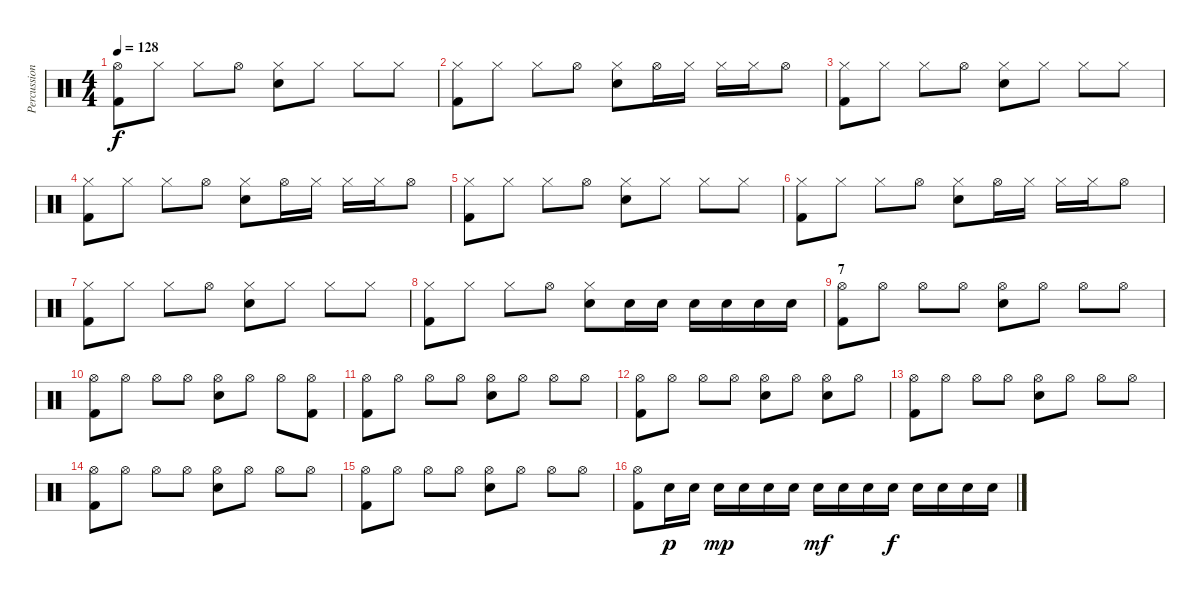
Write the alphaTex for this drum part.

\track ("Percussion" "Percussion") {instrument percussion}
\staff {score}
\articulation defaults
\ts (4 4)
\tempo 128
\clef neutral
\ks c
("Hi-Hat (open)" "Kick (hit) 2").8{dy f} "Hi-Hat (closed)".8 "Hi-Hat (closed)".8 "Hi-Hat (open)".8 ("Hi-Hat (closed)" "Electric Snare (hit)").8 "Hi-Hat (closed)".8 "Hi-Hat (closed)".8 "Hi-Hat (closed)".8 |
("Hi-Hat (closed)" "Kick (hit) 2").8 "Hi-Hat (closed)".8 "Hi-Hat (closed)".8 "Hi-Hat (open)".8 ("Hi-Hat (closed)" "Electric Snare (hit)").8 "Hi-Hat (open)".16 "Hi-Hat (closed)".16 "Hi-Hat (closed)".16 "Hi-Hat (closed)".16 "Hi-Hat (open)".8 |
("Hi-Hat (closed)" "Kick (hit) 2").8 "Hi-Hat (closed)".8 "Hi-Hat (closed)".8 "Hi-Hat (open)".8 ("Hi-Hat (closed)" "Electric Snare (hit)").8 "Hi-Hat (closed)".8 "Hi-Hat (closed)".8 "Hi-Hat (closed)".8 |
("Hi-Hat (closed)" "Kick (hit) 2").8 "Hi-Hat (closed)".8 "Hi-Hat (closed)".8 "Hi-Hat (open)".8 ("Hi-Hat (closed)" "Electric Snare (hit)").8 "Hi-Hat (open)".16 "Hi-Hat (closed)".16 "Hi-Hat (closed)".16 "Hi-Hat (closed)".16 "Hi-Hat (open)".8 |
("Hi-Hat (closed)" "Kick (hit) 2").8 "Hi-Hat (closed)".8 "Hi-Hat (closed)".8 "Hi-Hat (open)".8 ("Hi-Hat (closed)" "Electric Snare (hit)").8 "Hi-Hat (closed)".8 "Hi-Hat (closed)".8 "Hi-Hat (closed)".8 |
("Hi-Hat (closed)" "Kick (hit) 2").8 "Hi-Hat (closed)".8 "Hi-Hat (closed)".8 "Hi-Hat (open)".8 ("Hi-Hat (closed)" "Electric Snare (hit)").8 "Hi-Hat (open)".16 "Hi-Hat (closed)".16 "Hi-Hat (closed)".16 "Hi-Hat (closed)".16 "Hi-Hat (open)".8 |
("Hi-Hat (closed)" "Kick (hit) 2").8 "Hi-Hat (closed)".8 "Hi-Hat (closed)".8 "Hi-Hat (open)".8 ("Hi-Hat (closed)" "Electric Snare (hit)").8 "Hi-Hat (closed)".8 "Hi-Hat (closed)".8 "Hi-Hat (closed)".8 |
("Hi-Hat (closed)" "Kick (hit) 2").8 "Hi-Hat (closed)".8 "Hi-Hat (closed)".8 "Hi-Hat (open)".8 ("Hi-Hat (closed)" "Electric Snare (hit)").8 "Electric Snare (hit)".16 "Electric Snare (hit)".16 "Electric Snare (hit)".16 "Electric Snare (hit)".16 "Electric Snare (hit)".16 "Electric Snare (hit)".16 |
\section ("" "7")
("Hi-Hat (open)" "Kick (hit) 2").8 "Hi-Hat (open)".8 "Hi-Hat (open)".8 "Hi-Hat (open)".8 ("Hi-Hat (open)" "Electric Snare (hit)").8 "Hi-Hat (open)".8 "Hi-Hat (open)".8 "Hi-Hat (open)".8 |
("Hi-Hat (open)" "Kick (hit) 2").8 "Hi-Hat (open)".8 "Hi-Hat (open)".8 "Hi-Hat (open)".8 ("Hi-Hat (open)" "Electric Snare (hit)").8 "Hi-Hat (open)".8 "Hi-Hat (open)".8 ("Hi-Hat (open)" "Kick (hit) 2").8 |
("Hi-Hat (open)" "Kick (hit) 2").8 "Hi-Hat (open)".8 "Hi-Hat (open)".8 "Hi-Hat (open)".8 ("Hi-Hat (open)" "Electric Snare (hit)").8 "Hi-Hat (open)".8 "Hi-Hat (open)".8 "Hi-Hat (open)".8 |
("Hi-Hat (open)" "Kick (hit) 2").8 "Hi-Hat (open)".8 "Hi-Hat (open)".8 "Hi-Hat (open)".8 ("Hi-Hat (open)" "Electric Snare (hit)").8 "Hi-Hat (open)".8 ("Hi-Hat (open)" "Electric Snare (hit)").8 "Hi-Hat (open)".8 |
("Hi-Hat (open)" "Kick (hit) 2").8 "Hi-Hat (open)".8 "Hi-Hat (open)".8 "Hi-Hat (open)".8 ("Hi-Hat (open)" "Electric Snare (hit)").8 "Hi-Hat (open)".8 "Hi-Hat (open)".8 "Hi-Hat (open)".8 |
("Hi-Hat (open)" "Kick (hit) 2").8 "Hi-Hat (open)".8 "Hi-Hat (open)".8 "Hi-Hat (open)".8 ("Hi-Hat (open)" "Electric Snare (hit)").8 "Hi-Hat (open)".8 "Hi-Hat (open)".8 "Hi-Hat (open)".8 |
("Hi-Hat (open)" "Kick (hit) 2").8 "Hi-Hat (open)".8 "Hi-Hat (open)".8 "Hi-Hat (open)".8 ("Hi-Hat (open)" "Electric Snare (hit)").8 "Hi-Hat (open)".8 "Hi-Hat (open)".8 "Hi-Hat (open)".8 |
("Hi-Hat (open)" "Kick (hit) 2").8 "Electric Snare (hit)".16{dy p} "Electric Snare (hit)".16 "Electric Snare (hit)".16{dy mp} "Electric Snare (hit)".16 "Electric Snare (hit)".16 "Electric Snare (hit)".16 "Electric Snare (hit)".16{dy mf} "Electric Snare (hit)".16 "Electric Snare (hit)".16 "Electric Snare (hit)".16{dy f} "Electric Snare (hit)".16 "Electric Snare (hit)".16 "Electric Snare (hit)".16 "Electric Snare (hit)".16
